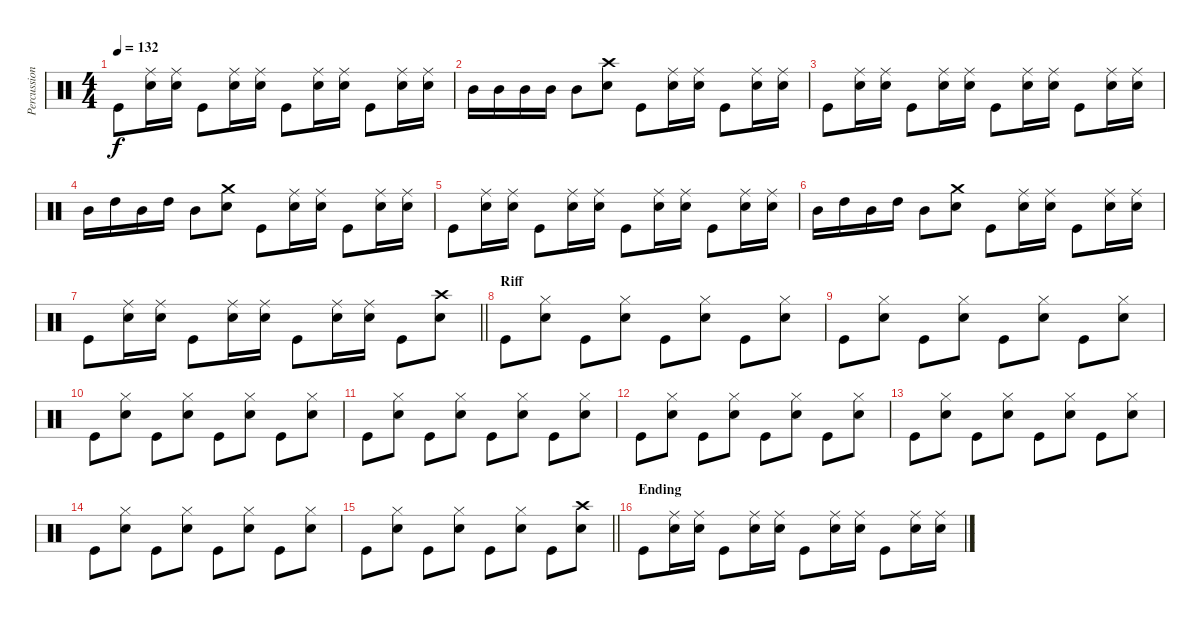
\track ("Percussion" "Percussion") {instrument percussion}
\staff {score}
\articulation defaults
\ts (4 4)
\tempo 132
\clef neutral
\ks c "Kick (hit)".8{dy f}
("Ride (middle)" "Snare (hit) 2").16 ("Ride (middle)" "Snare (hit) 2").16 "Kick (hit)".8 ("Ride (middle)" "Snare (hit) 2").16 ("Ride (middle)" "Snare (hit) 2").16 "Kick (hit)".8 ("Ride (middle)" "Snare (hit) 2").16 ("Ride (middle)" "Snare (hit) 2").16 "Kick (hit)".8 ("Ride (middle)" "Snare (hit) 2").16 ("Ride (middle)" "Snare (hit) 2").16 |
"Mid Tom (hit)".16 "Mid Tom (hit)".16 "Mid Tom (hit)".16 "Mid Tom (hit)".16 "Mid Tom (hit)".8 ("Crash high (hit)" "Snare (hit) 2").8 "Kick (hit)".8 ("Ride (middle)" "Snare (hit) 2").16 ("Ride (middle)" "Snare (hit) 2").16 "Kick (hit)".8 ("Ride (middle)" "Snare (hit) 2").16 ("Ride (middle)" "Snare (hit) 2").16 |
"Kick (hit)".8 ("Ride (middle)" "Snare (hit) 2").16 ("Ride (middle)" "Snare (hit) 2").16 "Kick (hit)".8 ("Ride (middle)" "Snare (hit) 2").16 ("Ride (middle)" "Snare (hit) 2").16 "Kick (hit)".8 ("Ride (middle)" "Snare (hit) 2").16 ("Ride (middle)" "Snare (hit) 2").16 "Kick (hit)".8 ("Ride (middle)" "Snare (hit) 2").16 ("Ride (middle)" "Snare (hit) 2").16 |
"Mid Tom (hit)".16 "High Tom (hit)".16 "Mid Tom (hit)".16 "High Tom (hit)".16 "Mid Tom (hit)".8 ("Crash medium (hit)" "Snare (hit) 2").8 "Kick (hit)".8 ("Ride (middle)" "Snare (hit) 2").16 ("Ride (middle)" "Snare (hit) 2").16 "Kick (hit)".8 ("Ride (middle)" "Snare (hit) 2").16 ("Ride (middle)" "Snare (hit) 2").16 |
"Kick (hit)".8 ("Ride (middle)" "Snare (hit) 2").16 ("Ride (middle)" "Snare (hit) 2").16 "Kick (hit)".8 ("Ride (middle)" "Snare (hit) 2").16 ("Ride (middle)" "Snare (hit) 2").16 "Kick (hit)".8 ("Ride (middle)" "Snare (hit) 2").16 ("Ride (middle)" "Snare (hit) 2").16 "Kick (hit)".8 ("Ride (middle)" "Snare (hit) 2").16 ("Ride (middle)" "Snare (hit) 2").16 |
"Mid Tom (hit)".16 "High Tom (hit)".16 "Mid Tom (hit)".16 "High Tom (hit)".16 "Mid Tom (hit)".8 ("Crash medium (hit)" "Snare (hit) 2").8 "Kick (hit)".8 ("Ride (middle)" "Snare (hit) 2").16 ("Ride (middle)" "Snare (hit) 2").16 "Kick (hit)".8 ("Ride (middle)" "Snare (hit) 2").16 ("Ride (middle)" "Snare (hit) 2").16 |
\barLineRight lightlight "Kick (hit)".8
("Ride (middle)" "Snare (hit) 2").16 ("Ride (middle)" "Snare (hit) 2").16 "Kick (hit)".8 ("Ride (middle)" "Snare (hit) 2").16 ("Ride (middle)" "Snare (hit) 2").16 "Kick (hit)".8 ("Ride (middle)" "Snare (hit) 2").16 ("Ride (middle)" "Snare (hit) 2").16 "Kick (hit)".8 ("Crash high (hit)" "Snare (hit) 2").8 |
\section ("" "Riff")
"Kick (hit)".8 ("Hi-Hat (closed)" "Snare (hit) 2").8 "Kick (hit)".8 ("Hi-Hat (closed)" "Snare (hit) 2").8 "Kick (hit)".8 ("Hi-Hat (closed)" "Snare (hit) 2").8 "Kick (hit)".8 ("Hi-Hat (closed)" "Snare (hit) 2").8 |
"Kick (hit)".8 ("Hi-Hat (closed)" "Snare (hit) 2").8 "Kick (hit)".8 ("Hi-Hat (closed)" "Snare (hit) 2").8 "Kick (hit)".8 ("Hi-Hat (closed)" "Snare (hit) 2").8 "Kick (hit)".8 ("Hi-Hat (closed)" "Snare (hit) 2").8 |
"Kick (hit)".8 ("Hi-Hat (closed)" "Snare (hit) 2").8 "Kick (hit)".8 ("Hi-Hat (closed)" "Snare (hit) 2").8 "Kick (hit)".8 ("Hi-Hat (closed)" "Snare (hit) 2").8 "Kick (hit)".8 ("Hi-Hat (closed)" "Snare (hit) 2").8 |
"Kick (hit)".8 ("Hi-Hat (closed)" "Snare (hit) 2").8 "Kick (hit)".8 ("Hi-Hat (closed)" "Snare (hit) 2").8 "Kick (hit)".8 ("Hi-Hat (closed)" "Snare (hit) 2").8 "Kick (hit)".8 ("Hi-Hat (closed)" "Snare (hit) 2").8 |
"Kick (hit)".8 ("Hi-Hat (closed)" "Snare (hit) 2").8 "Kick (hit)".8 ("Hi-Hat (closed)" "Snare (hit) 2").8 "Kick (hit)".8 ("Hi-Hat (closed)" "Snare (hit) 2").8 "Kick (hit)".8 ("Hi-Hat (closed)" "Snare (hit) 2").8 |
"Kick (hit)".8 ("Hi-Hat (closed)" "Snare (hit) 2").8 "Kick (hit)".8 ("Hi-Hat (closed)" "Snare (hit) 2").8 "Kick (hit)".8 ("Hi-Hat (closed)" "Snare (hit) 2").8 "Kick (hit)".8 ("Hi-Hat (closed)" "Snare (hit) 2").8 |
"Kick (hit)".8 ("Hi-Hat (closed)" "Snare (hit) 2").8 "Kick (hit)".8 ("Hi-Hat (closed)" "Snare (hit) 2").8 "Kick (hit)".8 ("Hi-Hat (closed)" "Snare (hit) 2").8 "Kick (hit)".8 ("Hi-Hat (closed)" "Snare (hit) 2").8 |
\barLineRight lightlight "Kick (hit)".8
("Hi-Hat (closed)" "Snare (hit) 2").8 "Kick (hit)".8 ("Hi-Hat (closed)" "Snare (hit) 2").8 "Kick (hit)".8 ("Hi-Hat (closed)" "Snare (hit) 2").8 "Kick (hit)".8 ("Crash high (hit)" "Snare (hit) 2").8 |
\section ("" "Ending")
"Kick (hit)".8 ("Ride (middle)" "Snare (hit) 2").16 ("Ride (middle)" "Snare (hit) 2").16 "Kick (hit)".8 ("Ride (middle)" "Snare (hit) 2").16 ("Ride (middle)" "Snare (hit) 2").16 "Kick (hit)".8 ("Ride (middle)" "Snare (hit) 2").16 ("Ride (middle)" "Snare (hit) 2").16 "Kick (hit)".8 ("Ride (middle)" "Snare (hit) 2").16 ("Ride (middle)" "Snare (hit) 2").16
